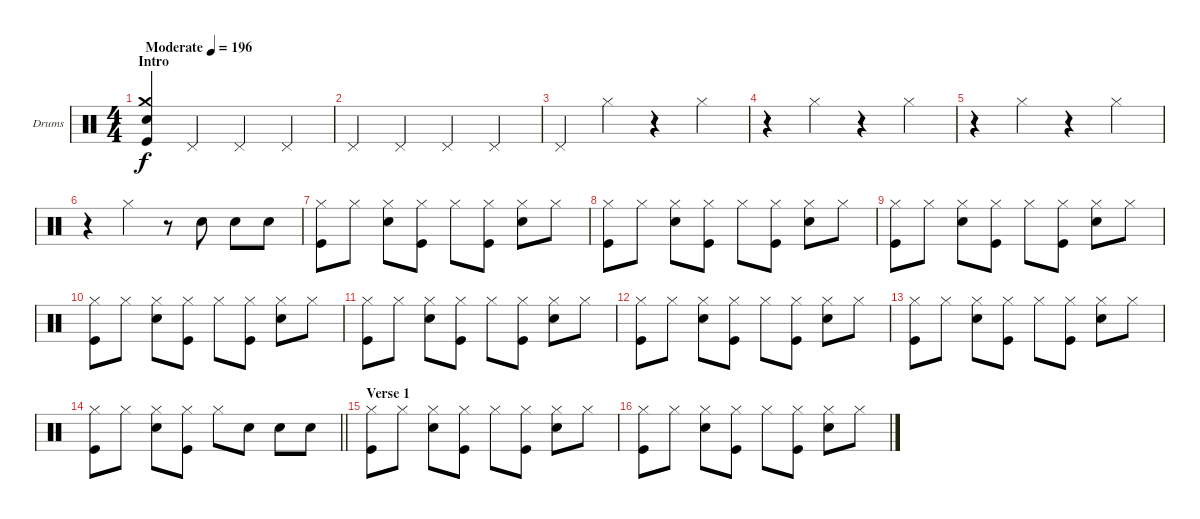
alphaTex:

\bracketExtendMode groupsimilarinstruments
\firstSystemTrackNameOrientation horizontal
\otherSystemsTrackNameOrientation horizontal
\track ("Fabrizio" "Drums") {instrument percussion}
\staff {score}
\articulation defaults
\ts (4 4)
\beaming (8 2 2 2 2)
\section ("" "Intro")
\tempo (196 "Moderate")
\clef neutral
\ks c
("Snare (hit) 2" "Crash medium (hit)" "Kick (hit)").4{dy f} "Pedal Hi-Hat (hit)".4 "Pedal Hi-Hat (hit)".4 "Pedal Hi-Hat (hit)".4 |
"Pedal Hi-Hat (hit)".4 "Pedal Hi-Hat (hit)".4 "Pedal Hi-Hat (hit)".4 "Pedal Hi-Hat (hit)".4 |
"Pedal Hi-Hat (hit)".4 "Hi-Hat (closed)".4 r.4 "Hi-Hat (closed)".4 |
r.4 "Hi-Hat (closed)".4 r.4 "Hi-Hat (closed)".4 |
r.4 "Hi-Hat (closed)".4 r.4 "Hi-Hat (closed)".4 |
r.4 "Hi-Hat (closed)".4 r.8 "Snare (hit) 2".8 "Snare (hit) 2".8 "Snare (hit) 2".8 |
("Hi-Hat (closed)" "Kick (hit)").8 "Hi-Hat (closed)".8 ("Snare (hit) 2" "Hi-Hat (closed)").8 ("Kick (hit)" "Hi-Hat (closed)").8 "Hi-Hat (closed)".8 ("Kick (hit)" "Hi-Hat (closed)").8 ("Snare (hit) 2" "Hi-Hat (closed)").8 "Hi-Hat (closed)".8 |
("Hi-Hat (closed)" "Kick (hit)").8 "Hi-Hat (closed)".8 ("Snare (hit) 2" "Hi-Hat (closed)").8 ("Kick (hit)" "Hi-Hat (closed)").8 "Hi-Hat (closed)".8 ("Kick (hit)" "Hi-Hat (closed)").8 ("Snare (hit) 2" "Hi-Hat (closed)").8 "Hi-Hat (closed)".8 |
("Hi-Hat (closed)" "Kick (hit)").8 "Hi-Hat (closed)".8 ("Snare (hit) 2" "Hi-Hat (closed)").8 ("Kick (hit)" "Hi-Hat (closed)").8 "Hi-Hat (closed)".8 ("Kick (hit)" "Hi-Hat (closed)").8 ("Snare (hit) 2" "Hi-Hat (closed)").8 "Hi-Hat (closed)".8 |
("Hi-Hat (closed)" "Kick (hit)").8 "Hi-Hat (closed)".8 ("Snare (hit) 2" "Hi-Hat (closed)").8 ("Kick (hit)" "Hi-Hat (closed)").8 "Hi-Hat (closed)".8 ("Kick (hit)" "Hi-Hat (closed)").8 ("Snare (hit) 2" "Hi-Hat (closed)").8 "Hi-Hat (closed)".8 |
("Hi-Hat (closed)" "Kick (hit)").8 "Hi-Hat (closed)".8 ("Snare (hit) 2" "Hi-Hat (closed)").8 ("Kick (hit)" "Hi-Hat (closed)").8 "Hi-Hat (closed)".8 ("Kick (hit)" "Hi-Hat (closed)").8 ("Snare (hit) 2" "Hi-Hat (closed)").8 "Hi-Hat (closed)".8 |
("Hi-Hat (closed)" "Kick (hit)").8 "Hi-Hat (closed)".8 ("Snare (hit) 2" "Hi-Hat (closed)").8 ("Kick (hit)" "Hi-Hat (closed)").8 "Hi-Hat (closed)".8 ("Kick (hit)" "Hi-Hat (closed)").8 ("Snare (hit) 2" "Hi-Hat (closed)").8 "Hi-Hat (closed)".8 |
("Hi-Hat (closed)" "Kick (hit)").8 "Hi-Hat (closed)".8 ("Snare (hit) 2" "Hi-Hat (closed)").8 ("Kick (hit)" "Hi-Hat (closed)").8 "Hi-Hat (closed)".8 ("Kick (hit)" "Hi-Hat (closed)").8 ("Snare (hit) 2" "Hi-Hat (closed)").8 "Hi-Hat (closed)".8 |
\barLineRight lightlight
("Hi-Hat (closed)" "Kick (hit)").8 "Hi-Hat (closed)".8 ("Snare (hit) 2" "Hi-Hat (closed)").8 ("Kick (hit)" "Hi-Hat (closed)").8 "Hi-Hat (closed)".8 "Snare (hit) 2".8 "Snare (hit) 2".8 "Snare (hit) 2".8 |
\section ("" "Verse 1")
("Hi-Hat (closed)" "Kick (hit)").8 "Hi-Hat (closed)".8 ("Snare (hit) 2" "Hi-Hat (closed)").8 ("Kick (hit)" "Hi-Hat (closed)").8 "Hi-Hat (closed)".8 ("Kick (hit)" "Hi-Hat (closed)").8 ("Snare (hit) 2" "Hi-Hat (closed)").8 "Hi-Hat (closed)".8 |
("Hi-Hat (closed)" "Kick (hit)").8 "Hi-Hat (closed)".8 ("Snare (hit) 2" "Hi-Hat (closed)").8 ("Kick (hit)" "Hi-Hat (closed)").8 "Hi-Hat (closed)".8 ("Kick (hit)" "Hi-Hat (closed)").8 ("Snare (hit) 2" "Hi-Hat (closed)").8 "Hi-Hat (closed)".8
